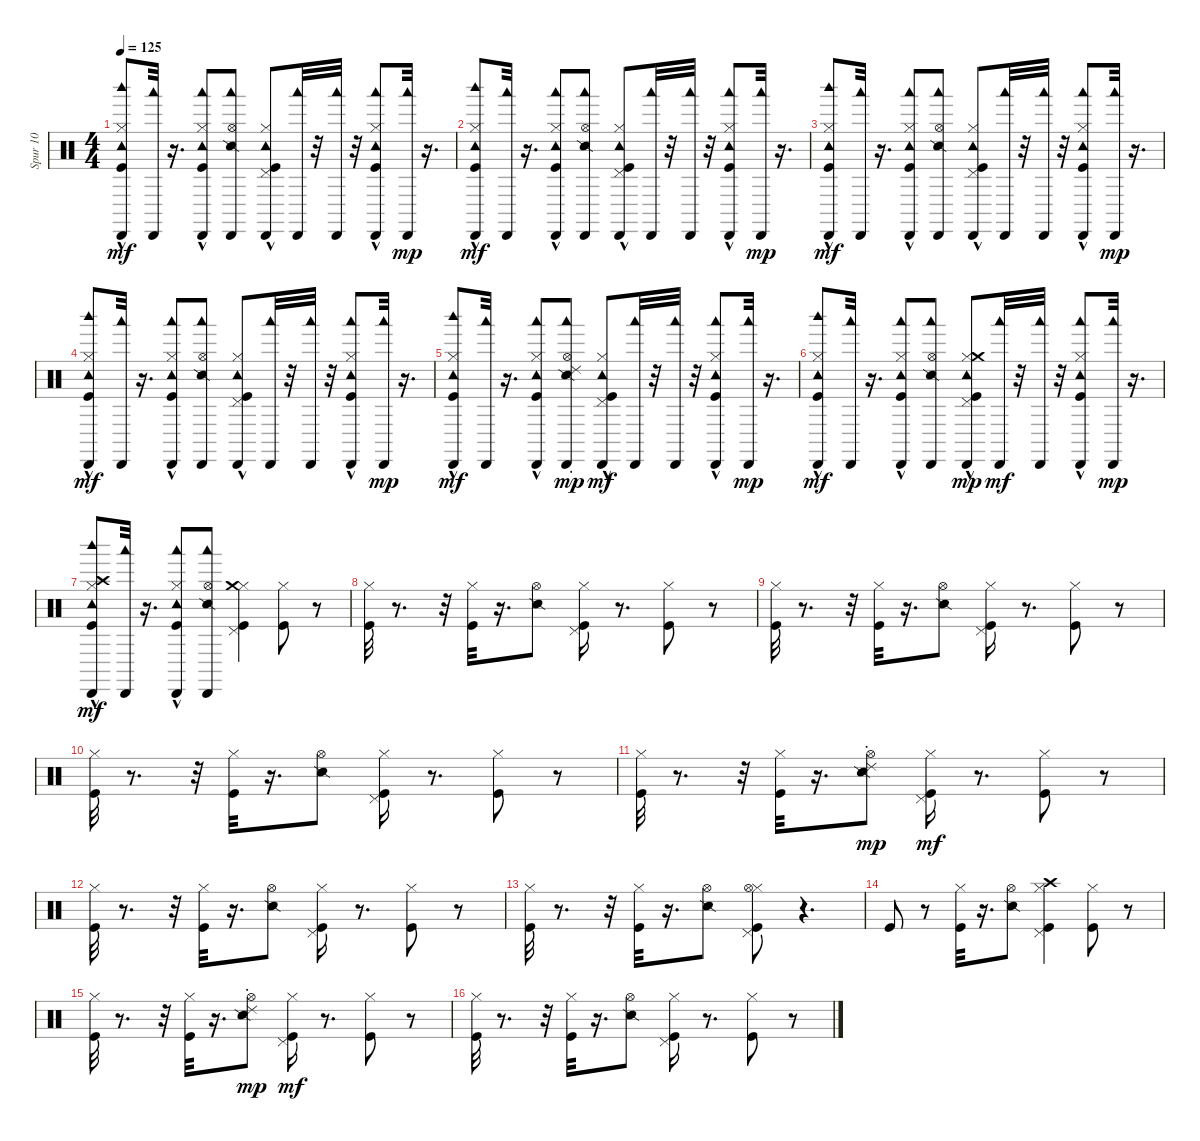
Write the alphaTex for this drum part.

\track ("Spur 10" "Spur 10") {instrument percussion}
\staff {score}
\articulation defaults
\ts (4 4)
\tempo 125
\clef neutral
\ks c
("Woodblock high (hit)" "Cabasa (hit)" "Tambourine (hit)"{hac} "Hi-Hat (closed)" "Kick (hit)").8{dy mf} ("Woodblock low (hit)" "Cabasa (hit)").32 r.16{d} ("Woodblock low (hit)" "Cabasa (hit)" "Tambourine (hit)"{hac} "Hi-Hat (closed)" "Kick (hit)").8 ("Woodblock low (hit)" "Cabasa (hit)" "Hi-Hat (open)" "Snare (side stick) 2").8 ("Cabasa (hit)" "Tambourine (hit)"{hac} "Pedal Hi-Hat (hit)" "Kick (hit)" "Hi-Hat (closed)").8 ("Woodblock low (hit)" "Cabasa (hit)").32 r.32 ("Woodblock low (hit)" "Cabasa (hit)").32 r.32 ("Woodblock low (hit)" "Cabasa (hit)" "Tambourine (hit)"{hac} "Hi-Hat (closed)" "Kick (hit)").8 ("Woodblock low (hit)" "Cabasa (hit)").32{dy mp} r.16{d} |
("Woodblock high (hit)" "Cabasa (hit)" "Tambourine (hit)"{hac} "Hi-Hat (closed)" "Kick (hit)").8{dy mf} ("Woodblock low (hit)" "Cabasa (hit)").32 r.16{d} ("Woodblock low (hit)" "Cabasa (hit)" "Tambourine (hit)"{hac} "Hi-Hat (closed)" "Kick (hit)").8 ("Woodblock low (hit)" "Cabasa (hit)" "Hi-Hat (open)" "Snare (side stick) 2").8 ("Cabasa (hit)" "Tambourine (hit)"{hac} "Pedal Hi-Hat (hit)" "Kick (hit)" "Hi-Hat (closed)").8 ("Woodblock low (hit)" "Cabasa (hit)").32 r.32 ("Woodblock low (hit)" "Cabasa (hit)").32 r.32 ("Woodblock low (hit)" "Cabasa (hit)" "Tambourine (hit)"{hac} "Hi-Hat (closed)" "Kick (hit)").8 ("Woodblock low (hit)" "Cabasa (hit)").32{dy mp} r.16{d} |
("Woodblock high (hit)" "Cabasa (hit)" "Tambourine (hit)"{hac} "Hi-Hat (closed)" "Kick (hit)").8{dy mf} ("Woodblock low (hit)" "Cabasa (hit)").32 r.16{d} ("Woodblock low (hit)" "Cabasa (hit)" "Tambourine (hit)"{hac} "Hi-Hat (closed)" "Kick (hit)").8 ("Woodblock low (hit)" "Cabasa (hit)" "Hi-Hat (open)" "Snare (side stick) 2").8 ("Cabasa (hit)" "Tambourine (hit)"{hac} "Pedal Hi-Hat (hit)" "Kick (hit)" "Hi-Hat (closed)").8 ("Woodblock low (hit)" "Cabasa (hit)").32 r.32 ("Woodblock low (hit)" "Cabasa (hit)").32 r.32 ("Woodblock low (hit)" "Cabasa (hit)" "Tambourine (hit)"{hac} "Hi-Hat (closed)" "Kick (hit)").8 ("Woodblock low (hit)" "Cabasa (hit)").32{dy mp} r.16{d} |
("Woodblock high (hit)" "Cabasa (hit)" "Tambourine (hit)"{hac} "Hi-Hat (closed)" "Kick (hit)").8{dy mf} ("Woodblock low (hit)" "Cabasa (hit)").32 r.16{d} ("Woodblock low (hit)" "Cabasa (hit)" "Tambourine (hit)"{hac} "Hi-Hat (closed)" "Kick (hit)").8 ("Woodblock low (hit)" "Cabasa (hit)" "Hi-Hat (open)" "Snare (side stick) 2").8 ("Cabasa (hit)" "Tambourine (hit)"{hac} "Pedal Hi-Hat (hit)" "Kick (hit)" "Hi-Hat (closed)").8 ("Woodblock low (hit)" "Cabasa (hit)").32 r.32 ("Woodblock low (hit)" "Cabasa (hit)").32 r.32 ("Woodblock low (hit)" "Cabasa (hit)" "Tambourine (hit)"{hac} "Hi-Hat (closed)" "Kick (hit)").8 ("Woodblock low (hit)" "Cabasa (hit)").32{dy mp} r.16{d} |
("Woodblock high (hit)" "Cabasa (hit)" "Tambourine (hit)"{hac} "Hi-Hat (closed)" "Kick (hit)").8{dy mf} ("Woodblock low (hit)" "Cabasa (hit)").32 r.16{d} ("Woodblock low (hit)" "Cabasa (hit)" "Tambourine (hit)"{hac} "Hi-Hat (closed)" "Kick (hit)").8 ("Woodblock low (hit)" "Cabasa (hit)" "Hi-Hat (open)" "Snare (side stick) 2" "Ride (choke) 2").8{dy mp} ("Cabasa (hit)" "Tambourine (hit)"{hac} "Pedal Hi-Hat (hit)" "Kick (hit)" "Hi-Hat (closed)").8{dy mf} ("Woodblock low (hit)" "Cabasa (hit)").32 r.32 ("Woodblock low (hit)" "Cabasa (hit)").32 r.32 ("Woodblock low (hit)" "Cabasa (hit)" "Tambourine (hit)"{hac} "Hi-Hat (closed)" "Kick (hit)").8 ("Woodblock low (hit)" "Cabasa (hit)").32{dy mp} r.16{d} |
("Woodblock high (hit)" "Cabasa (hit)" "Tambourine (hit)"{hac} "Hi-Hat (closed)" "Kick (hit)").8{dy mf} ("Woodblock low (hit)" "Cabasa (hit)").32 r.16{d} ("Woodblock low (hit)" "Cabasa (hit)" "Tambourine (hit)"{hac} "Hi-Hat (closed)" "Kick (hit)").8 ("Woodblock low (hit)" "Cabasa (hit)" "Hi-Hat (open)" "Snare (side stick) 2").8 ("Cabasa (hit)" "Tambourine (hit)"{hac} "Pedal Hi-Hat (hit)" "Kick (hit)" "Hi-Hat (closed)" "Crash medium (hit)"{hac}).8{dy mp} ("Woodblock low (hit)" "Cabasa (hit)").32{dy mf} r.32 ("Woodblock low (hit)" "Cabasa (hit)").32 r.32 ("Woodblock low (hit)" "Cabasa (hit)" "Tambourine (hit)"{hac} "Hi-Hat (closed)" "Kick (hit)").8 ("Woodblock low (hit)" "Cabasa (hit)").32{dy mp} r.16{d} |
("Woodblock high (hit)" "Cabasa (hit)" "Tambourine (hit)"{hac} "Hi-Hat (closed)" "Kick (hit)" "Crash high (hit)"{hac}).8{dy mf} ("Woodblock low (hit)" "Cabasa (hit)").32 r.16{d} ("Woodblock low (hit)" "Cabasa (hit)" "Tambourine (hit)"{hac} "Hi-Hat (closed)" "Kick (hit)").8 ("Woodblock low (hit)" "Cabasa (hit)" "Hi-Hat (open)" "Snare (side stick) 2").8 ("Pedal Hi-Hat (hit)" "Kick (hit)" "Hi-Hat (closed)" "Crash medium (hit)").4 ("Hi-Hat (closed)" "Kick (hit)").8 r.8 |
("Hi-Hat (closed)" "Kick (hit)").32 r.8{d} r.32 ("Hi-Hat (closed)" "Kick (hit)").32 r.16{d} ("Hi-Hat (open)" "Snare (side stick) 2").8 ("Pedal Hi-Hat (hit)" "Kick (hit)" "Hi-Hat (closed)").16 r.8{d} ("Hi-Hat (closed)" "Kick (hit)").8 r.8 |
("Hi-Hat (closed)" "Kick (hit)").32 r.8{d} r.32 ("Hi-Hat (closed)" "Kick (hit)").32 r.16{d} ("Hi-Hat (open)" "Snare (side stick) 2").8 ("Pedal Hi-Hat (hit)" "Kick (hit)" "Hi-Hat (closed)").16 r.8{d} ("Hi-Hat (closed)" "Kick (hit)").8 r.8 |
("Hi-Hat (closed)" "Kick (hit)").32 r.8{d} r.32 ("Hi-Hat (closed)" "Kick (hit)").32 r.16{d} ("Hi-Hat (open)" "Snare (side stick) 2").8 ("Pedal Hi-Hat (hit)" "Kick (hit)" "Hi-Hat (closed)").16 r.8{d} ("Hi-Hat (closed)" "Kick (hit)").8 r.8 |
("Hi-Hat (closed)" "Kick (hit)").32 r.8{d} r.32 ("Hi-Hat (closed)" "Kick (hit)").32 r.16{d} ("Hi-Hat (open)" "Snare (side stick) 2" "Ride (choke) 2").8{dy mp} ("Pedal Hi-Hat (hit)" "Kick (hit)" "Hi-Hat (closed)").16{dy mf} r.8{d} ("Hi-Hat (closed)" "Kick (hit)").8 r.8 |
("Hi-Hat (closed)" "Kick (hit)").32 r.8{d} r.32 ("Hi-Hat (closed)" "Kick (hit)").32 r.16{d} ("Hi-Hat (open)" "Snare (side stick) 2").8 ("Pedal Hi-Hat (hit)" "Kick (hit)" "Hi-Hat (closed)").16 r.8{d} ("Hi-Hat (closed)" "Kick (hit)").8 r.8 |
("Hi-Hat (closed)" "Kick (hit)").32 r.8{d} r.32 ("Hi-Hat (closed)" "Kick (hit)").32 r.16{d} ("Hi-Hat (open)" "Snare (side stick) 2").8 ("Pedal Hi-Hat (hit)" "Kick (hit)" "Hi-Hat (closed)" "Hi-Hat (open)").8 r.4{d} |
"Kick (hit)".8 r.8 ("Hi-Hat (closed)" "Kick (hit)").32 r.16{d} ("Hi-Hat (open)" "Snare (side stick) 2").8 ("Pedal Hi-Hat (hit)" "Kick (hit)" "Hi-Hat (closed)" "Crash high (hit)").4 ("Hi-Hat (closed)" "Kick (hit)").8 r.8 |
("Hi-Hat (closed)" "Kick (hit)").32 r.8{d} r.32 ("Hi-Hat (closed)" "Kick (hit)").32 r.16{d} ("Hi-Hat (open)" "Snare (side stick) 2" "Ride (choke) 2").8{dy mp} ("Pedal Hi-Hat (hit)" "Kick (hit)" "Hi-Hat (closed)").16{dy mf} r.8{d} ("Hi-Hat (closed)" "Kick (hit)").8 r.8 |
("Hi-Hat (closed)" "Kick (hit)").32 r.8{d} r.32 ("Hi-Hat (closed)" "Kick (hit)").32 r.16{d} ("Hi-Hat (open)" "Snare (side stick) 2").8 ("Pedal Hi-Hat (hit)" "Kick (hit)" "Hi-Hat (closed)").16 r.8{d} ("Hi-Hat (closed)" "Kick (hit)").8 r.8
